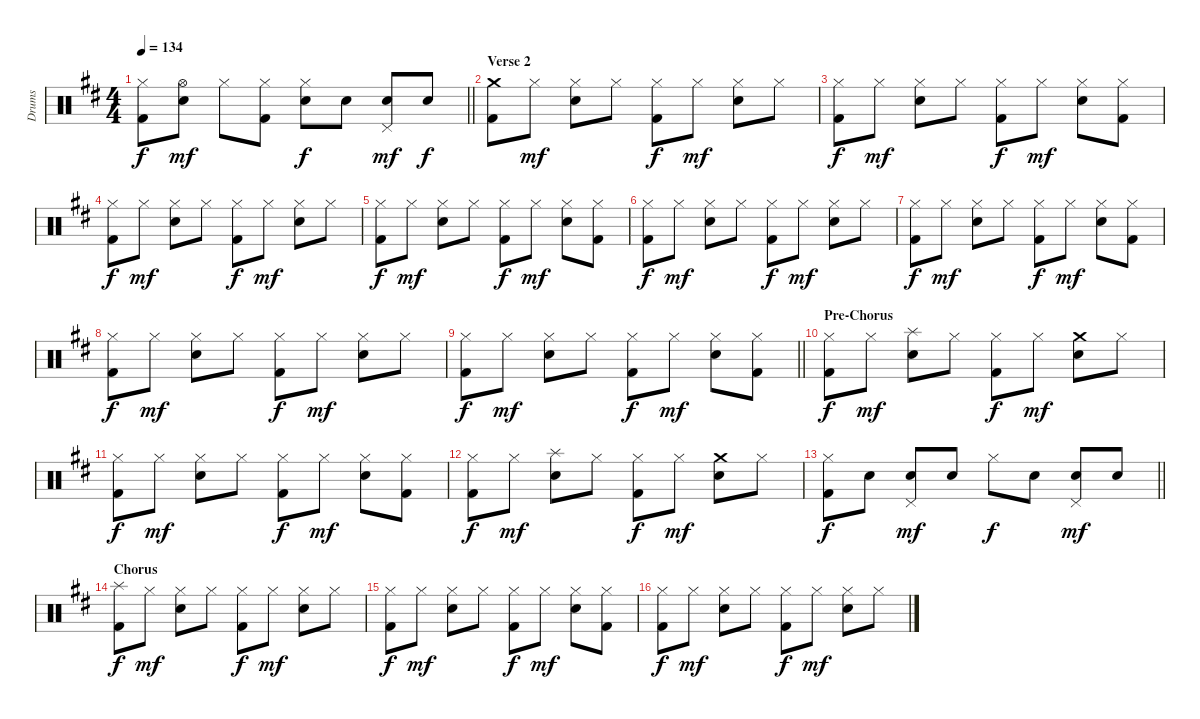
\track ("Drums" "Drums") {instrument percussion}
\staff {score}
\articulation defaults
\ts (4 4)
\tempo 134
\clef neutral
\barLineRight lightlight
\ks d
("Hi-Hat (closed)" "Kick (hit) 2").8{dy f} ("Hi-Hat (open)" "Snare (hit) 2").8{dy mf} "Hi-Hat (closed)".8 ("Hi-Hat (closed)" "Kick (hit) 2").8 ("Hi-Hat (closed)" "Snare (hit) 2").8{dy f} "Snare (hit) 2".8 ("Pedal Hi-Hat (hit)" "Snare (hit) 2").8{dy mf} "Snare (hit) 2".8{dy f} |
\section ("" "Verse 2")
("Crash medium (hit)" "Kick (hit) 2").8 "Hi-Hat (closed)".8{dy mf} ("Hi-Hat (closed)" "Snare (hit) 2").8 "Hi-Hat (closed)".8 ("Hi-Hat (closed)" "Kick (hit) 2").8{dy f} "Hi-Hat (closed)".8{dy mf} ("Hi-Hat (closed)" "Snare (hit) 2").8 "Hi-Hat (closed)".8 |
("Hi-Hat (closed)" "Kick (hit) 2").8{dy f} "Hi-Hat (closed)".8{dy mf} ("Hi-Hat (closed)" "Snare (hit) 2").8 "Hi-Hat (closed)".8 ("Hi-Hat (closed)" "Kick (hit) 2").8{dy f} "Hi-Hat (closed)".8{dy mf} ("Hi-Hat (closed)" "Snare (hit) 2").8 ("Hi-Hat (closed)" "Kick (hit) 2").8 |
("Hi-Hat (closed)" "Kick (hit) 2").8{dy f} "Hi-Hat (closed)".8{dy mf} ("Hi-Hat (closed)" "Snare (hit) 2").8 "Hi-Hat (closed)".8 ("Hi-Hat (closed)" "Kick (hit) 2").8{dy f} "Hi-Hat (closed)".8{dy mf} ("Hi-Hat (closed)" "Snare (hit) 2").8 "Hi-Hat (closed)".8 |
("Hi-Hat (closed)" "Kick (hit) 2").8{dy f} "Hi-Hat (closed)".8{dy mf} ("Hi-Hat (closed)" "Snare (hit) 2").8 "Hi-Hat (closed)".8 ("Hi-Hat (closed)" "Kick (hit) 2").8{dy f} "Hi-Hat (closed)".8{dy mf} ("Hi-Hat (closed)" "Snare (hit) 2").8 ("Hi-Hat (closed)" "Kick (hit) 2").8 |
("Hi-Hat (closed)" "Kick (hit) 2").8{dy f} "Hi-Hat (closed)".8{dy mf} ("Hi-Hat (closed)" "Snare (hit) 2").8 "Hi-Hat (closed)".8 ("Hi-Hat (closed)" "Kick (hit) 2").8{dy f} "Hi-Hat (closed)".8{dy mf} ("Hi-Hat (closed)" "Snare (hit) 2").8 "Hi-Hat (closed)".8 |
("Hi-Hat (closed)" "Kick (hit) 2").8{dy f} "Hi-Hat (closed)".8{dy mf} ("Hi-Hat (closed)" "Snare (hit) 2").8 "Hi-Hat (closed)".8 ("Hi-Hat (closed)" "Kick (hit) 2").8{dy f} "Hi-Hat (closed)".8{dy mf} ("Hi-Hat (closed)" "Snare (hit) 2").8 ("Hi-Hat (closed)" "Kick (hit) 2").8 |
("Hi-Hat (closed)" "Kick (hit) 2").8{dy f} "Hi-Hat (closed)".8{dy mf} ("Hi-Hat (closed)" "Snare (hit) 2").8 "Hi-Hat (closed)".8 ("Hi-Hat (closed)" "Kick (hit) 2").8{dy f} "Hi-Hat (closed)".8{dy mf} ("Hi-Hat (closed)" "Snare (hit) 2").8 "Hi-Hat (closed)".8 |
\barLineRight lightlight
("Hi-Hat (closed)" "Kick (hit) 2").8{dy f} "Hi-Hat (closed)".8{dy mf} ("Hi-Hat (closed)" "Snare (hit) 2").8 "Hi-Hat (closed)".8 ("Hi-Hat (closed)" "Kick (hit) 2").8{dy f} "Hi-Hat (closed)".8{dy mf} ("Hi-Hat (closed)" "Snare (hit) 2").8 ("Hi-Hat (closed)" "Kick (hit) 2").8 |
\section ("" "Pre-Chorus")
("Hi-Hat (closed)" "Kick (hit) 2").8{dy f} "Hi-Hat (closed)".8{dy mf} ("Splash (hit)" "Snare (hit) 2").8 "Hi-Hat (closed)".8 ("Hi-Hat (closed)" "Kick (hit) 2").8{dy f} "Hi-Hat (closed)".8{dy mf} ("Crash medium (hit)" "Snare (hit) 2").8 "Hi-Hat (closed)".8 |
("Hi-Hat (closed)" "Kick (hit) 2").8{dy f} "Hi-Hat (closed)".8{dy mf} ("Hi-Hat (closed)" "Snare (hit) 2").8 "Hi-Hat (closed)".8 ("Hi-Hat (closed)" "Kick (hit) 2").8{dy f} "Hi-Hat (closed)".8{dy mf} ("Hi-Hat (closed)" "Snare (hit) 2").8 ("Hi-Hat (closed)" "Kick (hit) 2").8 |
("Hi-Hat (closed)" "Kick (hit) 2").8{dy f} "Hi-Hat (closed)".8{dy mf} ("Splash (hit)" "Snare (hit) 2").8 "Hi-Hat (closed)".8 ("Hi-Hat (closed)" "Kick (hit) 2").8{dy f} "Hi-Hat (closed)".8{dy mf} ("Crash medium (hit)" "Snare (hit) 2").8 "Hi-Hat (closed)".8 |
\barLineRight lightlight
("Hi-Hat (closed)" "Kick (hit) 2").8{dy f} "Snare (hit) 2".8 ("Pedal Hi-Hat (hit)" "Snare (hit) 2").8{dy mf} "Snare (hit) 2".8 "Hi-Hat (closed)".8{dy f} "Snare (hit) 2".8 ("Pedal Hi-Hat (hit)" "Snare (hit) 2").8{dy mf} "Snare (hit) 2".8 |
\section ("" "Chorus")
("Splash (hit)" "Kick (hit) 2").8{dy f} "Hi-Hat (closed)".8{dy mf} ("Hi-Hat (closed)" "Snare (hit) 2").8 "Hi-Hat (closed)".8 ("Hi-Hat (closed)" "Kick (hit) 2").8{dy f} "Hi-Hat (closed)".8{dy mf} ("Hi-Hat (closed)" "Snare (hit) 2").8 "Hi-Hat (closed)".8 |
("Hi-Hat (closed)" "Kick (hit) 2").8{dy f} "Hi-Hat (closed)".8{dy mf} ("Hi-Hat (closed)" "Snare (hit) 2").8 "Hi-Hat (closed)".8 ("Hi-Hat (closed)" "Kick (hit) 2").8{dy f} "Hi-Hat (closed)".8{dy mf} ("Hi-Hat (closed)" "Snare (hit) 2").8 ("Hi-Hat (closed)" "Kick (hit) 2").8 |
("Hi-Hat (closed)" "Kick (hit) 2").8{dy f} "Hi-Hat (closed)".8{dy mf} ("Hi-Hat (closed)" "Snare (hit) 2").8 "Hi-Hat (closed)".8 ("Hi-Hat (closed)" "Kick (hit) 2").8{dy f} "Hi-Hat (closed)".8{dy mf} ("Hi-Hat (closed)" "Snare (hit) 2").8 "Hi-Hat (closed)".8
